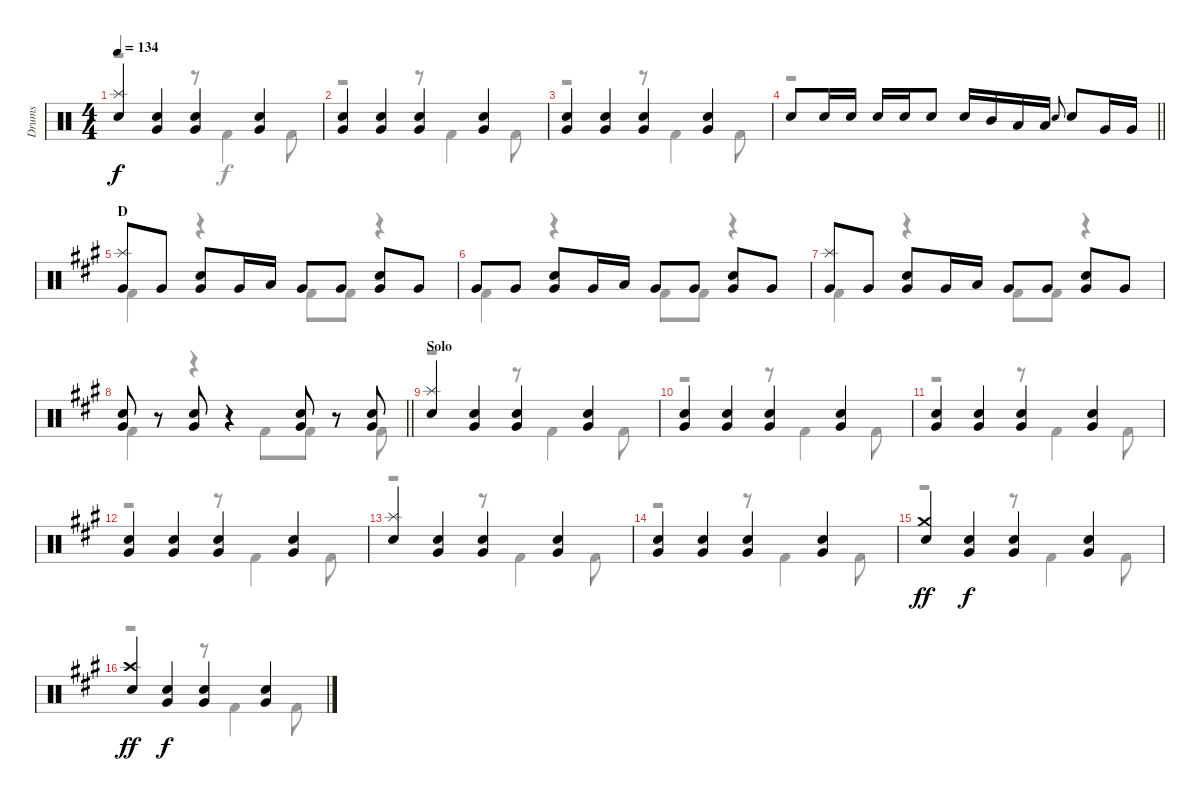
\track ("Drums" "Drums") {instrument percussion}
\staff {score}
\articulation defaults
\voice
\ts (4 4)
\tempo 134
\clef neutral
\ks c
("Splash (hit)" "Snare (hit) 2").4{dy f} ("Snare (hit) 2" "Very Low Tom (hit)").4 ("Snare (hit) 2" "Very Low Tom (hit)").4 ("Snare (hit) 2" "Very Low Tom (hit)").4 |
("Snare (hit) 2" "Very Low Tom (hit)").4 ("Snare (hit) 2" "Very Low Tom (hit)").4 ("Snare (hit) 2" "Very Low Tom (hit)").4 ("Snare (hit) 2" "Very Low Tom (hit)").4 |
("Snare (hit) 2" "Very Low Tom (hit)").4 ("Snare (hit) 2" "Very Low Tom (hit)").4 ("Snare (hit) 2" "Very Low Tom (hit)").4 ("Snare (hit) 2" "Very Low Tom (hit)").4 |
\barLineRight lightlight "Snare (hit) 2".8 "Snare (hit) 2".16 "Snare (hit) 2".16 "Snare (hit) 2".16 "Snare (hit) 2".16 "Snare (hit) 2".8 "Snare (hit) 2".16 "Mid Tom (hit)".16 "Low Tom (hit)".16 "Low Tom (hit)".16 "Snare (hit) 2".8{gr onbeat} "Snare (hit) 2".8 "Very Low Tom (hit)".16 "Very Low Tom (hit)".16
|
\section ("" "D")
\ks a
("Splash (hit)" "Very Low Tom (hit)").8 "Very Low Tom (hit)".8 ("Very Low Tom (hit)" "Snare (hit) 2").8 "Very Low Tom (hit)".16 "Low Tom (hit)".16 "Very Low Tom (hit)".8 "Very Low Tom (hit)".8 ("Very Low Tom (hit)" "Snare (hit) 2").8 "Very Low Tom (hit)".8 |
"Very Low Tom (hit)".8 "Very Low Tom (hit)".8 ("Very Low Tom (hit)" "Snare (hit) 2").8 "Very Low Tom (hit)".16 "Low Tom (hit)".16 "Very Low Tom (hit)".8 "Very Low Tom (hit)".8 ("Very Low Tom (hit)" "Snare (hit) 2").8 "Very Low Tom (hit)".8 |
("Splash (hit)" "Very Low Tom (hit)").8 "Very Low Tom (hit)".8 ("Very Low Tom (hit)" "Snare (hit) 2").8 "Very Low Tom (hit)".16 "Low Tom (hit)".16 "Very Low Tom (hit)".8 "Very Low Tom (hit)".8 ("Very Low Tom (hit)" "Snare (hit) 2").8 "Very Low Tom (hit)".8 |
\barLineRight lightlight
("Very Low Tom (hit)" "Snare (hit) 2").8 r.8 ("Very Low Tom (hit)" "Snare (hit) 2").8 r.4 ("Very Low Tom (hit)" "Snare (hit) 2").8 r.8 ("Very Low Tom (hit)" "Snare (hit) 2").8 |
\section ("" "Solo")
("Splash (hit)" "Snare (hit) 2").4 ("Snare (hit) 2" "Very Low Tom (hit)").4 ("Snare (hit) 2" "Very Low Tom (hit)").4 ("Snare (hit) 2" "Very Low Tom (hit)").4 |
("Snare (hit) 2" "Very Low Tom (hit)").4 ("Snare (hit) 2" "Very Low Tom (hit)").4 ("Snare (hit) 2" "Very Low Tom (hit)").4 ("Snare (hit) 2" "Very Low Tom (hit)").4 |
("Snare (hit) 2" "Very Low Tom (hit)").4 ("Snare (hit) 2" "Very Low Tom (hit)").4 ("Snare (hit) 2" "Very Low Tom (hit)").4 ("Snare (hit) 2" "Very Low Tom (hit)").4 |
("Snare (hit) 2" "Very Low Tom (hit)").4 ("Snare (hit) 2" "Very Low Tom (hit)").4 ("Snare (hit) 2" "Very Low Tom (hit)").4 ("Snare (hit) 2" "Very Low Tom (hit)").4 |
("Splash (hit)" "Snare (hit) 2").4 ("Snare (hit) 2" "Very Low Tom (hit)").4 ("Snare (hit) 2" "Very Low Tom (hit)").4 ("Snare (hit) 2" "Very Low Tom (hit)").4 |
("Snare (hit) 2" "Very Low Tom (hit)").4 ("Snare (hit) 2" "Very Low Tom (hit)").4 ("Snare (hit) 2" "Very Low Tom (hit)").4 ("Snare (hit) 2" "Very Low Tom (hit)").4 |
("Crash medium (hit)" "Snare (hit) 2").4{dy ff} ("Snare (hit) 2" "Very Low Tom (hit)").4{dy f} ("Snare (hit) 2" "Very Low Tom (hit)").4 ("Snare (hit) 2" "Very Low Tom (hit)").4 |
("Crash high (hit)" "Snare (hit) 2").4{dy ff} ("Snare (hit) 2" "Very Low Tom (hit)").4{dy f} ("Snare (hit) 2" "Very Low Tom (hit)").4 ("Snare (hit) 2" "Very Low Tom (hit)").4
\voice
\clef neutral
\ottava regular
\simile none
\ks c
r.2{dy f} r.8 "Kick (hit) 2".4 "Kick (hit) 2".8 |
r.2 r.8 "Kick (hit) 2".4 "Kick (hit) 2".8 |
r.2 r.8 "Kick (hit) 2".4 "Kick (hit) 2".8 |
\barLineRight lightlight
r.1 |
\ks a "Kick (hit) 2".4
r.4 "Kick (hit) 2".8 "Kick (hit) 2".8 r.4 |
"Kick (hit) 2".4 r.4 "Kick (hit) 2".8 "Kick (hit) 2".8 r.4 |
"Kick (hit) 2".4 r.4 "Kick (hit) 2".8 "Kick (hit) 2".8 r.4 |
\barLineRight lightlight "Kick (hit) 2".4
r.4 "Kick (hit) 2".8 "Kick (hit) 2".8 r.8 "Kick (hit) 2".8 |
r.2 r.8 "Kick (hit) 2".4 "Kick (hit) 2".8 |
r.2 r.8 "Kick (hit) 2".4 "Kick (hit) 2".8 |
r.2 r.8 "Kick (hit) 2".4 "Kick (hit) 2".8 |
r.2 r.8 "Kick (hit) 2".4 "Kick (hit) 2".8 |
r.2 r.8 "Kick (hit) 2".4 "Kick (hit) 2".8 |
r.2 r.8 "Kick (hit) 2".4 "Kick (hit) 2".8 |
r.2 r.8 "Kick (hit) 2".4 "Kick (hit) 2".8 |
r.2 r.8 "Kick (hit) 2".4 "Kick (hit) 2".8
